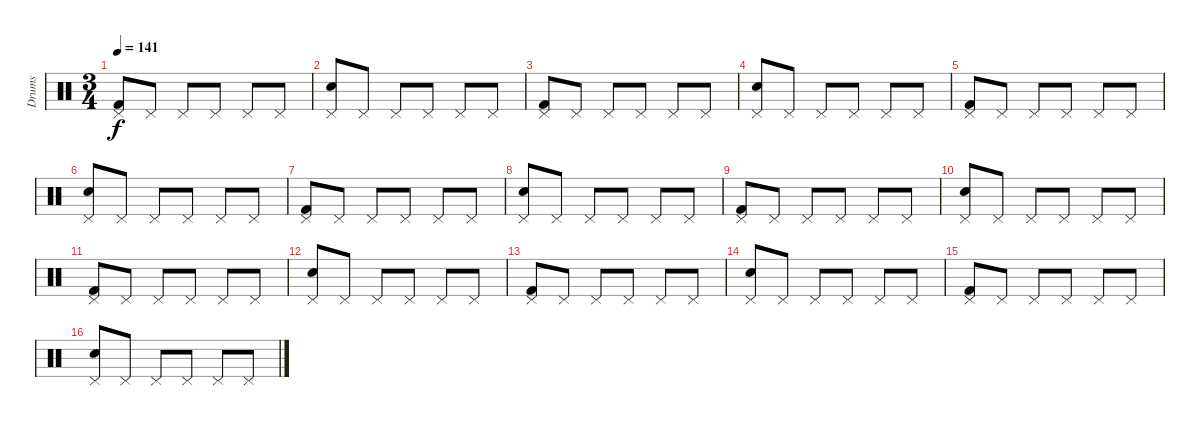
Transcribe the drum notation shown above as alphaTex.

\track ("Drums" "Drums") {instrument percussion}
\staff {score}
\articulation defaults
\ts (3 4)
\tempo 141
\clef neutral
\ks c
("Pedal Hi-Hat (hit)" "Kick (hit) 2").8{dy f} "Pedal Hi-Hat (hit)".8 "Pedal Hi-Hat (hit)".8 "Pedal Hi-Hat (hit)".8 "Pedal Hi-Hat (hit)".8 "Pedal Hi-Hat (hit)".8 |
("Pedal Hi-Hat (hit)" "Electric Snare (hit)").8 "Pedal Hi-Hat (hit)".8 "Pedal Hi-Hat (hit)".8 "Pedal Hi-Hat (hit)".8 "Pedal Hi-Hat (hit)".8 "Pedal Hi-Hat (hit)".8 |
("Pedal Hi-Hat (hit)" "Kick (hit) 2").8 "Pedal Hi-Hat (hit)".8 "Pedal Hi-Hat (hit)".8 "Pedal Hi-Hat (hit)".8 "Pedal Hi-Hat (hit)".8 "Pedal Hi-Hat (hit)".8 |
("Pedal Hi-Hat (hit)" "Electric Snare (hit)").8 "Pedal Hi-Hat (hit)".8 "Pedal Hi-Hat (hit)".8 "Pedal Hi-Hat (hit)".8 "Pedal Hi-Hat (hit)".8 "Pedal Hi-Hat (hit)".8 |
("Pedal Hi-Hat (hit)" "Kick (hit) 2").8 "Pedal Hi-Hat (hit)".8 "Pedal Hi-Hat (hit)".8 "Pedal Hi-Hat (hit)".8 "Pedal Hi-Hat (hit)".8 "Pedal Hi-Hat (hit)".8 |
("Pedal Hi-Hat (hit)" "Electric Snare (hit)").8 "Pedal Hi-Hat (hit)".8 "Pedal Hi-Hat (hit)".8 "Pedal Hi-Hat (hit)".8 "Pedal Hi-Hat (hit)".8 "Pedal Hi-Hat (hit)".8 |
("Pedal Hi-Hat (hit)" "Kick (hit) 2").8 "Pedal Hi-Hat (hit)".8 "Pedal Hi-Hat (hit)".8 "Pedal Hi-Hat (hit)".8 "Pedal Hi-Hat (hit)".8 "Pedal Hi-Hat (hit)".8 |
("Pedal Hi-Hat (hit)" "Electric Snare (hit)").8 "Pedal Hi-Hat (hit)".8 "Pedal Hi-Hat (hit)".8 "Pedal Hi-Hat (hit)".8 "Pedal Hi-Hat (hit)".8 "Pedal Hi-Hat (hit)".8 |
("Pedal Hi-Hat (hit)" "Kick (hit) 2").8 "Pedal Hi-Hat (hit)".8 "Pedal Hi-Hat (hit)".8 "Pedal Hi-Hat (hit)".8 "Pedal Hi-Hat (hit)".8 "Pedal Hi-Hat (hit)".8 |
("Pedal Hi-Hat (hit)" "Electric Snare (hit)").8 "Pedal Hi-Hat (hit)".8 "Pedal Hi-Hat (hit)".8 "Pedal Hi-Hat (hit)".8 "Pedal Hi-Hat (hit)".8 "Pedal Hi-Hat (hit)".8 |
("Pedal Hi-Hat (hit)" "Kick (hit) 2").8 "Pedal Hi-Hat (hit)".8 "Pedal Hi-Hat (hit)".8 "Pedal Hi-Hat (hit)".8 "Pedal Hi-Hat (hit)".8 "Pedal Hi-Hat (hit)".8 |
("Pedal Hi-Hat (hit)" "Electric Snare (hit)").8 "Pedal Hi-Hat (hit)".8 "Pedal Hi-Hat (hit)".8 "Pedal Hi-Hat (hit)".8 "Pedal Hi-Hat (hit)".8 "Pedal Hi-Hat (hit)".8 |
("Pedal Hi-Hat (hit)" "Kick (hit) 2").8 "Pedal Hi-Hat (hit)".8 "Pedal Hi-Hat (hit)".8 "Pedal Hi-Hat (hit)".8 "Pedal Hi-Hat (hit)".8 "Pedal Hi-Hat (hit)".8 |
("Pedal Hi-Hat (hit)" "Electric Snare (hit)").8 "Pedal Hi-Hat (hit)".8 "Pedal Hi-Hat (hit)".8 "Pedal Hi-Hat (hit)".8 "Pedal Hi-Hat (hit)".8 "Pedal Hi-Hat (hit)".8 |
("Pedal Hi-Hat (hit)" "Kick (hit) 2").8 "Pedal Hi-Hat (hit)".8 "Pedal Hi-Hat (hit)".8 "Pedal Hi-Hat (hit)".8 "Pedal Hi-Hat (hit)".8 "Pedal Hi-Hat (hit)".8 |
("Pedal Hi-Hat (hit)" "Electric Snare (hit)").8 "Pedal Hi-Hat (hit)".8 "Pedal Hi-Hat (hit)".8 "Pedal Hi-Hat (hit)".8 "Pedal Hi-Hat (hit)".8 "Pedal Hi-Hat (hit)".8
